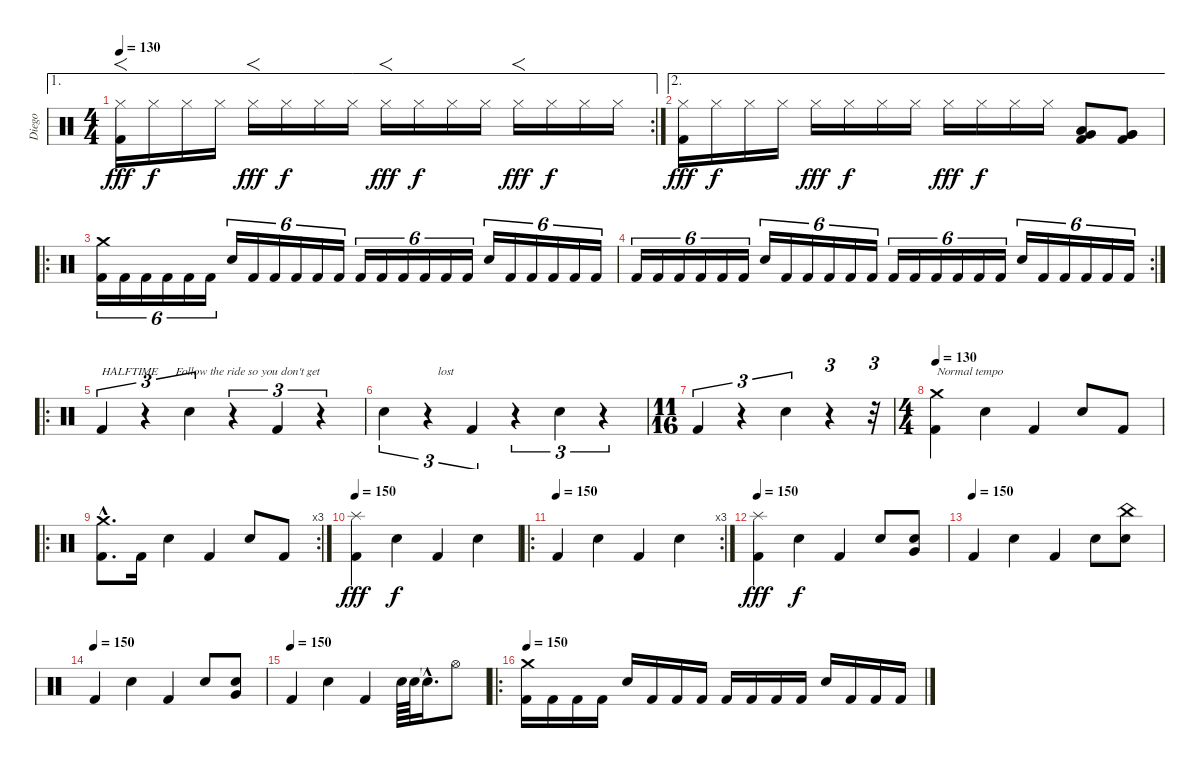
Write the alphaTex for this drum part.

\track ("Diego" "Diego") {instrument percussion}
\staff {score}
\articulation defaults
\ae 1
\rc 2
\ts (4 4)
\tempo 130
\clef neutral
\ks c
("Hi-Hat (closed)" "Kick (hit) 2").16{f dy fff} "Hi-Hat (closed)".16{dy f} "Hi-Hat (closed)".16 "Hi-Hat (closed)".16 "Hi-Hat (closed)".16{f dy fff} "Hi-Hat (closed)".16{dy f} "Hi-Hat (closed)".16 "Hi-Hat (closed)".16 "Hi-Hat (closed)".16{f dy fff} "Hi-Hat (closed)".16{dy f} "Hi-Hat (closed)".16 "Hi-Hat (closed)".16 "Hi-Hat (closed)".16{f dy fff} "Hi-Hat (closed)".16{dy f} "Hi-Hat (closed)".16 "Hi-Hat (closed)".16 |
\ae 2
("Hi-Hat (closed)" "Kick (hit) 2").16{dy fff} "Hi-Hat (closed)".16{dy f} "Hi-Hat (closed)".16 "Hi-Hat (closed)".16 "Hi-Hat (closed)".16{dy fff} "Hi-Hat (closed)".16{dy f} "Hi-Hat (closed)".16 "Hi-Hat (closed)".16 "Hi-Hat (closed)".16{dy fff} "Hi-Hat (closed)".16{dy f} "Hi-Hat (closed)".16 "Hi-Hat (closed)".16 ("Low Tom (hit)" "Very Low Tom (hit)" "Kick (hit) 2").8 ("Very Low Tom (hit)" "Very Low Tom (hit)" "Kick (hit) 2").8 |
\ro
("Crash medium (hit)" "Kick (hit) 2").16{tu (6 4)} "Kick (hit) 2".16{tu (6 4)} "Kick (hit) 2".16{tu (6 4)} "Kick (hit) 2".16{tu (6 4)} "Kick (hit) 2".16{tu (6 4)} "Kick (hit) 2".16{tu (6 4)} "Snare (hit) 2".16{tu (6 4)} "Kick (hit) 2".16{tu (6 4)} "Kick (hit) 2".16{tu (6 4)} "Kick (hit) 2".16{tu (6 4)} "Kick (hit) 2".16{tu (6 4)} "Kick (hit) 2".16{tu (6 4)} "Kick (hit) 2".16{tu (6 4)} "Kick (hit) 2".16{tu (6 4)} "Kick (hit) 2".16{tu (6 4)} "Kick (hit) 2".16{tu (6 4)} "Kick (hit) 2".16{tu (6 4)} "Kick (hit) 2".16{tu (6 4)} "Snare (hit) 2".16{tu (6 4)} "Kick (hit) 2".16{tu (6 4)} "Kick (hit) 2".16{tu (6 4)} "Kick (hit) 2".16{tu (6 4)} "Kick (hit) 2".16{tu (6 4)} "Kick (hit) 2".16{tu (6 4)} |
\rc 2 "Kick (hit) 2".16{tu (6 4)} "Kick (hit) 2".16{tu (6 4)} "Kick (hit) 2".16{tu (6 4)} "Kick (hit) 2".16{tu (6 4)} "Kick (hit) 2".16{tu (6 4)} "Kick (hit) 2".16{tu (6 4)} "Snare (hit) 2".16{tu (6 4)} "Kick (hit) 2".16{tu (6 4)} "Kick (hit) 2".16{tu (6 4)} "Kick (hit) 2".16{tu (6 4)} "Kick (hit) 2".16{tu (6 4)} "Kick (hit) 2".16{tu (6 4)} "Kick (hit) 2".16{tu (6 4)} "Kick (hit) 2".16{tu (6 4)} "Kick (hit) 2".16{tu (6 4)} "Kick (hit) 2".16{tu (6 4)} "Kick (hit) 2".16{tu (6 4)} "Kick (hit) 2".16{tu (6 4)} "Snare (hit) 2".16{tu (6 4)} "Kick (hit) 2".16{tu (6 4)} "Kick (hit) 2".16{tu (6 4)} "Kick (hit) 2".16{tu (6 4)} "Kick (hit) 2".16{tu (6 4)} "Kick (hit) 2".16{tu (6 4)}
|
\ro "Kick (hit) 2".4{tu (3 2) txt "HALFTIME      Follow the ride so you don't get "}
r.4{tu (3 2)} "Snare (hit) 2".4{tu (3 2)} r.4{tu (3 2)} "Kick (hit) 2".4{tu (3 2)} r.4{tu (3 2)} |
"Snare (hit) 2".4{tu (3 2) txt "                  lost"} r.4{tu (3 2)} "Kick (hit) 2".4{tu (3 2)} r.4{tu (3 2)} "Snare (hit) 2".4{tu (3 2)} r.4{tu (3 2)} |
\ts (11 16)
"Kick (hit) 2".4{tu (3 2)} r.4{tu (3 2)} "Snare (hit) 2".4{tu (3 2)} r.4{tu (3 2)} r.32{tu (3 2)} |
\ts (4 4)
\tempo 130
("Crash medium (hit)" "Kick (hit) 2").4{txt "Normal tempo"} "Snare (hit) 2".4 "Kick (hit) 2".4 "Snare (hit) 2".8 "Kick (hit) 2".8 |
\ro
\rc 3
("Crash medium (hit)"{hac} "Kick (hit) 2"{hac}).8{d} "Kick (hit) 2".16 "Snare (hit) 2".4 "Kick (hit) 2".4 "Snare (hit) 2".8 "Kick (hit) 2".8 |
\tempo 150
("Splash (hit)" "Kick (hit) 2").4{dy fff} "Snare (hit) 2".4{dy f} "Kick (hit) 2".4 "Snare (hit) 2".4 |
\ro
\rc 3
\tempo (150)
"Kick (hit) 2".4 "Snare (hit) 2".4 "Kick (hit) 2".4 "Snare (hit) 2".4 |
\tempo 150
("Splash (hit)" "Kick (hit) 2").4{dy fff} "Snare (hit) 2".4{dy f} "Kick (hit) 2".4 "Snare (hit) 2".8 ("Snare (hit) 2" "Very Low Tom (hit)").8 |
\tempo (150)
"Kick (hit) 2".4 "Snare (hit) 2".4 "Kick (hit) 2".4 "Snare (hit) 2".8 ("China (hit)" "Snare (hit) 2").8 |
\tempo (150)
"Kick (hit) 2".4 "Snare (hit) 2".4 "Kick (hit) 2".4 "Snare (hit) 2".8 ("Snare (hit) 2" "Very Low Tom (hit)").8 |
\tempo (150)
"Kick (hit) 2".4 "Snare (hit) 2".4 "Kick (hit) 2".4 "Snare (hit) 2".64 "Snare (hit) 2".64 "Snare (hit)"{hac t}.16{d} "Hi-Hat (open)".8 |
\ro
\tempo 150
("Crash medium (hit)" "Kick (hit) 2").16 "Kick (hit) 2".16 "Kick (hit) 2".16 "Kick (hit) 2".16 "Snare (hit) 2".16 "Kick (hit) 2".16 "Kick (hit) 2".16 "Kick (hit) 2".16 "Kick (hit) 2".16 "Kick (hit) 2".16 "Kick (hit) 2".16 "Kick (hit) 2".16 "Snare (hit) 2".16 "Kick (hit) 2".16 "Kick (hit) 2".16 "Kick (hit) 2".16
